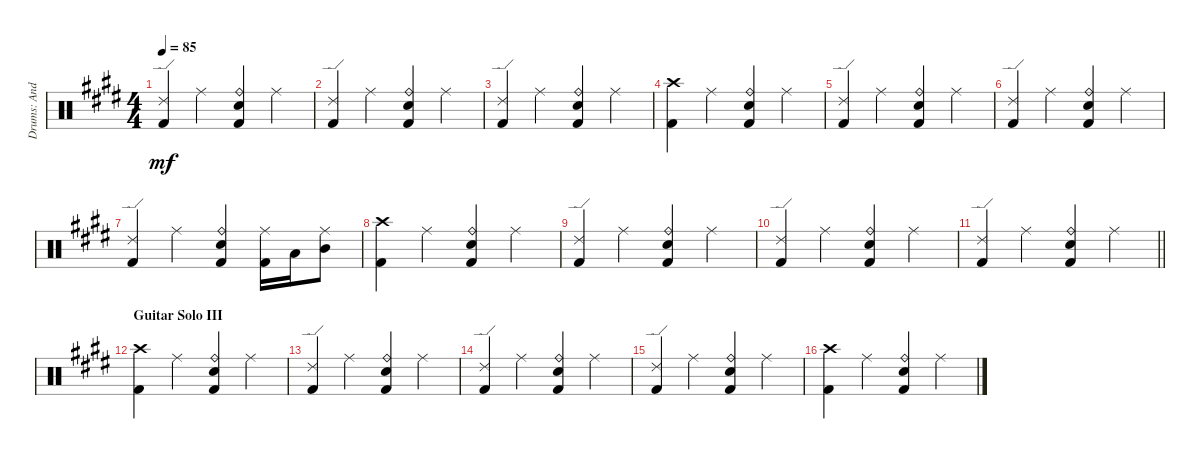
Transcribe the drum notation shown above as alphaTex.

\track ("Drums: Andy" "Drums: And") {instrument percussion}
\staff {score}
\articulation defaults
\ts (4 4)
\tempo 85
\clef neutral
\ks e
("Ride (edge) 2" "Kick (hit) 2").4{dy mf} "Ride (middle)".4 ("Ride (bell)" "Electric Snare (hit)" "Kick (hit) 2").4 "Ride (middle)".4 |
("Ride (edge) 2" "Kick (hit) 2").4 "Ride (middle)".4 ("Ride (bell)" "Electric Snare (hit)" "Kick (hit) 2").4 "Ride (middle)".4 |
("Ride (edge) 2" "Kick (hit) 2").4 "Ride (middle)".4 ("Ride (bell)" "Electric Snare (hit)" "Kick (hit) 2").4 "Ride (middle)".4 |
("Crash high (hit)" "Kick (hit) 2").4 "Ride (middle)".4 ("Ride (bell)" "Electric Snare (hit)" "Kick (hit) 2").4 "Ride (middle)".4 |
("Ride (edge) 2" "Kick (hit) 2").4 "Ride (middle)".4 ("Ride (bell)" "Electric Snare (hit)" "Kick (hit) 2").4 "Ride (middle)".4 |
("Ride (edge) 2" "Kick (hit) 2").4 "Ride (middle)".4 ("Ride (bell)" "Electric Snare (hit)" "Kick (hit) 2").4 "Ride (middle)".4 |
("Ride (edge) 2" "Kick (hit) 2").4 "Ride (middle)".4 ("Ride (bell)" "Electric Snare (hit)" "Kick (hit) 2").4 ("Ride (middle)" "Kick (hit) 2").16 "Low Tom (hit)".16 ("Ride (middle)" "Mid Tom (hit)").8 |
("Crash high (hit)" "Kick (hit) 2").4 "Ride (middle)".4 ("Ride (bell)" "Electric Snare (hit)" "Kick (hit) 2").4 "Ride (middle)".4 |
("Ride (edge) 2" "Kick (hit) 2").4 "Ride (middle)".4 ("Ride (bell)" "Electric Snare (hit)" "Kick (hit) 2").4 "Ride (middle)".4 |
("Ride (edge) 2" "Kick (hit) 2").4 "Ride (middle)".4 ("Ride (bell)" "Electric Snare (hit)" "Kick (hit) 2").4 "Ride (middle)".4 |
\barLineRight lightlight
("Ride (edge) 2" "Kick (hit) 2").4 "Ride (middle)".4 ("Ride (bell)" "Electric Snare (hit)" "Kick (hit) 2").4 "Ride (middle)".4 |
\section ("" "Guitar Solo III")
("Crash high (hit)" "Kick (hit) 2").4 "Ride (middle)".4 ("Ride (bell)" "Electric Snare (hit)" "Kick (hit) 2").4 "Ride (middle)".4 |
("Ride (edge) 2" "Kick (hit) 2").4 "Ride (middle)".4 ("Ride (bell)" "Electric Snare (hit)" "Kick (hit) 2").4 "Ride (middle)".4 |
("Ride (edge) 2" "Kick (hit) 2").4 "Ride (middle)".4 ("Ride (bell)" "Electric Snare (hit)" "Kick (hit) 2").4 "Ride (middle)".4 |
("Ride (edge) 2" "Kick (hit) 2").4 "Ride (middle)".4 ("Ride (bell)" "Electric Snare (hit)" "Kick (hit) 2").4 "Ride (middle)".4 |
("Crash high (hit)" "Kick (hit) 2").4 "Ride (middle)".4 ("Ride (bell)" "Electric Snare (hit)" "Kick (hit) 2").4 "Ride (middle)".4
